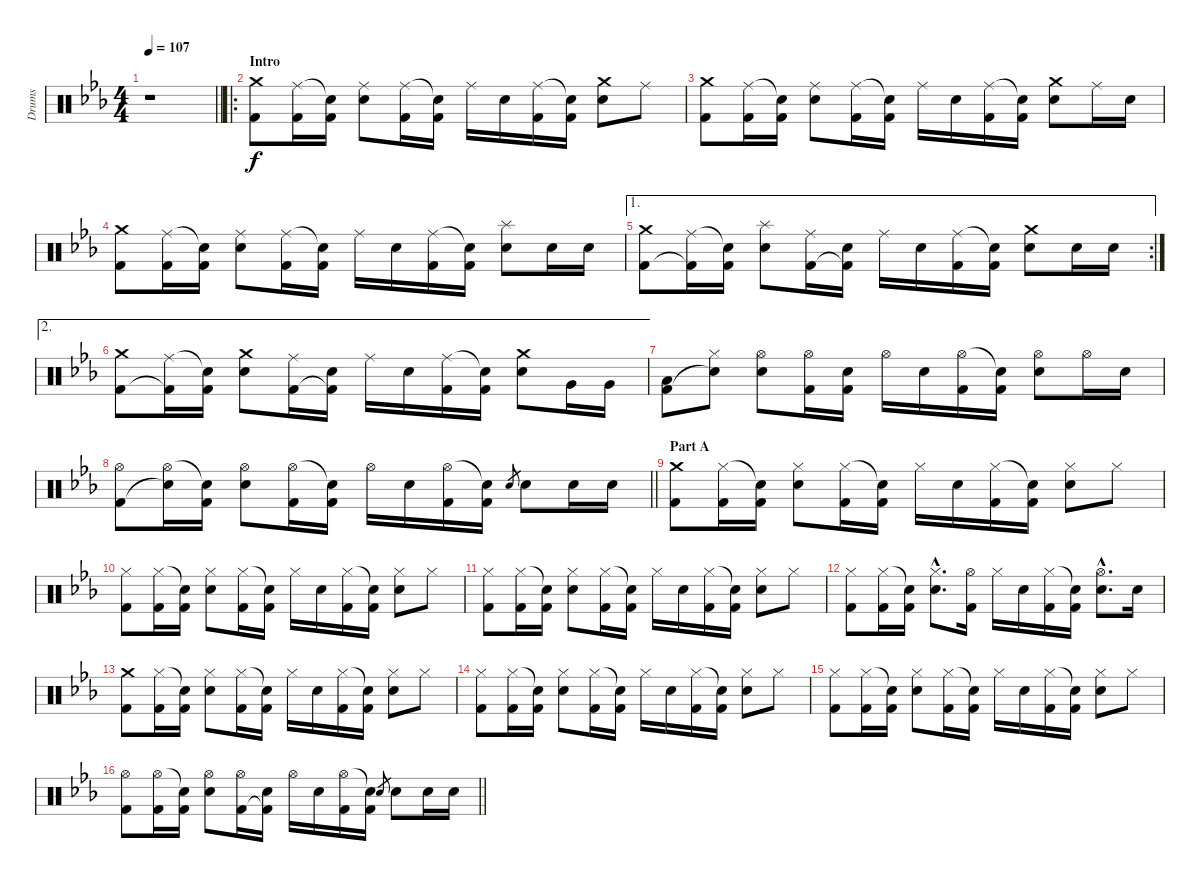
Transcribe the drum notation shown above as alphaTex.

\track ("Drums" "Drums") {instrument percussion}
\staff {score}
\articulation defaults
\ts (4 4)
\tempo 107
\clef neutral
\barLineRight lightlight
\ks eb
r.1{dy f} |
\ro
\section ("" "Intro")
("Crash medium (hit)" "Kick (hit) 2").8 ("Ride (middle)" "Kick (hit) 2").16 ("Snare (hit)"{t} "Kick (hit) 2").16 ("Ride (middle)" "Electric Snare (hit)").8 ("Ride (middle)" "Kick (hit) 2").16 ("Snare (hit)"{t} "Kick (hit) 2").16 "Ride (middle)".16 "Electric Snare (hit)".16 ("Ride (middle)" "Kick (hit) 2").16 ("Snare (hit)"{t} "Kick (hit) 2").16 ("Crash medium (hit)" "Electric Snare (hit)").8 "Ride (middle)".8 |
("Crash medium (hit)" "Kick (hit) 2").8 ("Ride (middle)" "Kick (hit) 2").16 ("Snare (hit)"{t} "Kick (hit) 2").16 ("Ride (middle)" "Electric Snare (hit)").8 ("Ride (middle)" "Kick (hit) 2").16 ("Snare (hit)"{t} "Kick (hit) 2").16 "Ride (middle)".16 "Electric Snare (hit)".16 ("Ride (middle)" "Kick (hit) 2").16 ("Snare (hit)"{t} "Kick (hit) 2").16 ("Crash medium (hit)" "Electric Snare (hit)").8 "Ride (middle)".16 "Electric Snare (hit)".16 |
("Crash medium (hit)" "Kick (hit) 2").8 ("Ride (middle)" "Kick (hit) 2").16 ("Snare (hit)"{t} "Kick (hit) 2").16 ("Ride (middle)" "Electric Snare (hit)").8 ("Ride (middle)" "Kick (hit) 2").16 ("Snare (hit)"{t} "Kick (hit) 2").16 "Ride (middle)".16 "Electric Snare (hit)".16 ("Ride (middle)" "Kick (hit) 2").16 ("Snare (hit)"{t} "Kick (hit) 2").16 ("Splash (hit)" "Electric Snare (hit)").8 "Electric Snare (hit)".16 "Electric Snare (hit)".16 |
\ae 1
\rc 2
("Crash medium (hit)" "Kick (hit) 2").8 ("Ride (middle)" "Kick (hit) 2"{t}).16 ("Snare (hit)"{t} "Kick (hit) 2").16 ("Splash (hit)" "Electric Snare (hit)").8 ("Ride (middle)" "Kick (hit) 2").16 ("Electric Snare (hit)" "Kick (hit) 2"{t}).16 "Ride (middle)".16 "Electric Snare (hit)".16 ("Ride (middle)" "Kick (hit) 2").16 ("Snare (hit)"{t} "Kick (hit) 2").16 ("Crash medium (hit)" "Electric Snare (hit)").8 "Electric Snare (hit)".16 "Electric Snare (hit)".16 |
\ae 2
("Crash medium (hit)" "Kick (hit) 2").8 ("Ride (middle)" "Kick (hit) 2"{t}).16 ("Snare (hit)"{t} "Kick (hit) 2").16 ("Crash medium (hit)" "Electric Snare (hit)").8 ("Ride (middle)" "Kick (hit) 2").16 ("Electric Snare (hit)" "Kick (hit) 2"{t}).16 "Ride (middle)".16 "Electric Snare (hit)".16 ("Ride (middle)" "Kick (hit) 2").16 ("Snare (hit)"{t} "Kick (hit) 2").16 ("Crash medium (hit)" "Electric Snare (hit)").8 "Very Low Tom (hit)".16 "Very Low Tom (hit)".16 |
("Low Floor Tom (hit)" "Kick (hit) 2").8 ("Hi-Hat (closed)" "Snare (hit)"{t}).8 ("Hi-Hat (open)" "Electric Snare (hit)").8 ("Hi-Hat (open)" "Kick (hit) 2").16 ("Electric Snare (hit)" "Kick (hit) 2").16 "Hi-Hat (open)".16 "Electric Snare (hit)".16 ("Hi-Hat (open)" "Kick (hit) 2").16 ("Snare (hit)"{t} "Kick (hit) 2").16 ("Hi-Hat (open)" "Electric Snare (hit)").8 "Hi-Hat (open)".16 "Electric Snare (hit)".16 |
\barLineRight lightlight
("Hi-Hat (open)" "Kick (hit) 2").8 ("Hi-Hat (open)" "Snare (hit)"{t}).16 ("Snare (hit)"{t} "Kick (hit) 2").16 ("Hi-Hat (open)" "Electric Snare (hit)").8 ("Hi-Hat (open)" "Kick (hit) 2").16 ("Snare (hit)"{t} "Kick (hit) 2").16 "Hi-Hat (open)".16 "Electric Snare (hit)".16 ("Hi-Hat (open)" "Kick (hit) 2").16 ("Snare (hit)"{t} "Kick (hit) 2").16 "Electric Snare (hit)".8{gr} "Electric Snare (hit)".8 "Electric Snare (hit)".16 "Electric Snare (hit)".16 |
\section ("" "Part A")
("Crash medium (hit)" "Kick (hit) 2").8 ("Hi-Hat (closed)" "Kick (hit) 2").16 ("Snare (hit)"{t} "Kick (hit) 2").16 ("Hi-Hat (closed)" "Electric Snare (hit)").8 ("Hi-Hat (closed)" "Kick (hit) 2").16 ("Snare (hit)"{t} "Kick (hit) 2").16 "Hi-Hat (closed)".16 "Electric Snare (hit)".16 ("Hi-Hat (closed)" "Kick (hit) 2").16 ("Snare (hit)"{t} "Kick (hit) 2").16 ("Hi-Hat (closed)" "Electric Snare (hit)").8 "Hi-Hat (closed)".8 |
("Hi-Hat (closed)" "Kick (hit) 2").8 ("Hi-Hat (closed)" "Kick (hit) 2").16 ("Snare (hit)"{t} "Kick (hit) 2").16 ("Hi-Hat (closed)" "Electric Snare (hit)").8 ("Hi-Hat (closed)" "Kick (hit) 2").16 ("Snare (hit)"{t} "Kick (hit) 2").16 "Hi-Hat (closed)".16 "Electric Snare (hit)".16 ("Hi-Hat (closed)" "Kick (hit) 2").16 ("Snare (hit)"{t} "Kick (hit) 2").16 ("Hi-Hat (closed)" "Electric Snare (hit)").8 "Hi-Hat (closed)".8 |
("Hi-Hat (closed)" "Kick (hit) 2").8 ("Hi-Hat (closed)" "Kick (hit) 2").16 ("Snare (hit)"{t} "Kick (hit) 2").16 ("Hi-Hat (closed)" "Electric Snare (hit)").8 ("Hi-Hat (closed)" "Kick (hit) 2").16 ("Snare (hit)"{t} "Kick (hit) 2").16 "Hi-Hat (closed)".16 "Electric Snare (hit)".16 ("Hi-Hat (closed)" "Kick (hit) 2").16 ("Snare (hit)"{t} "Kick (hit) 2").16 ("Hi-Hat (closed)" "Electric Snare (hit)").8 "Hi-Hat (closed)".8 |
("Hi-Hat (closed)" "Kick (hit) 2").8 ("Hi-Hat (closed)" "Kick (hit) 2").16 ("Snare (hit)"{t} "Kick (hit) 2").16 ("Hi-Hat (closed)"{hac} "Electric Snare (hit)"{hac}).8{d} ("Hi-Hat (open)" "Kick (hit) 2").16 "Hi-Hat (closed)".16 "Electric Snare (hit)".16 ("Hi-Hat (closed)" "Kick (hit) 2").16 ("Snare (hit)"{t} "Kick (hit) 2").16 ("Hi-Hat (open)"{hac} "Electric Snare (hit)"{hac}).8{d} "Electric Snare (hit)".16 |
("Crash medium (hit)" "Kick (hit) 2").8 ("Hi-Hat (closed)" "Kick (hit) 2").16 ("Snare (hit)"{t} "Kick (hit) 2").16 ("Hi-Hat (closed)" "Electric Snare (hit)").8 ("Hi-Hat (closed)" "Kick (hit) 2").16 ("Snare (hit)"{t} "Kick (hit) 2").16 "Hi-Hat (closed)".16 "Electric Snare (hit)".16 ("Hi-Hat (closed)" "Kick (hit) 2").16 ("Snare (hit)"{t} "Kick (hit) 2").16 ("Hi-Hat (closed)" "Electric Snare (hit)").8 "Hi-Hat (closed)".8 |
("Hi-Hat (closed)" "Kick (hit) 2").8 ("Hi-Hat (closed)" "Kick (hit) 2").16 ("Snare (hit)"{t} "Kick (hit) 2").16 ("Hi-Hat (closed)" "Electric Snare (hit)").8 ("Hi-Hat (closed)" "Kick (hit) 2").16 ("Snare (hit)"{t} "Kick (hit) 2").16 "Hi-Hat (closed)".16 "Electric Snare (hit)".16 ("Hi-Hat (closed)" "Kick (hit) 2").16 ("Snare (hit)"{t} "Kick (hit) 2").16 ("Hi-Hat (closed)" "Electric Snare (hit)").8 "Hi-Hat (closed)".8 |
("Hi-Hat (closed)" "Kick (hit) 2").8 ("Hi-Hat (closed)" "Kick (hit) 2").16 ("Snare (hit)"{t} "Kick (hit) 2").16 ("Hi-Hat (closed)" "Electric Snare (hit)").8 ("Hi-Hat (closed)" "Kick (hit) 2").16 ("Snare (hit)"{t} "Kick (hit) 2").16 "Hi-Hat (closed)".16 "Electric Snare (hit)".16 ("Hi-Hat (closed)" "Kick (hit) 2").16 ("Snare (hit)"{t} "Kick (hit) 2").16 ("Hi-Hat (closed)" "Electric Snare (hit)").8 "Hi-Hat (closed)".8 |
\barLineRight lightlight
("Hi-Hat (open)" "Kick (hit) 2").8 ("Hi-Hat (open)" "Kick (hit) 2").16 ("Snare (hit)"{t} "Kick (hit) 2").16 ("Hi-Hat (open)" "Electric Snare (hit)").8 ("Hi-Hat (open)" "Kick (hit) 2").16 ("Electric Snare (hit)" "Kick (hit) 2"{t}).16 "Hi-Hat (open)".16 "Electric Snare (hit)".16 ("Hi-Hat (open)" "Kick (hit) 2").16 ("Snare (hit)"{t} "Kick (hit) 2").16 "Electric Snare (hit)".8{gr} "Electric Snare (hit)".8 "Electric Snare (hit)".16 "Electric Snare (hit)".16
